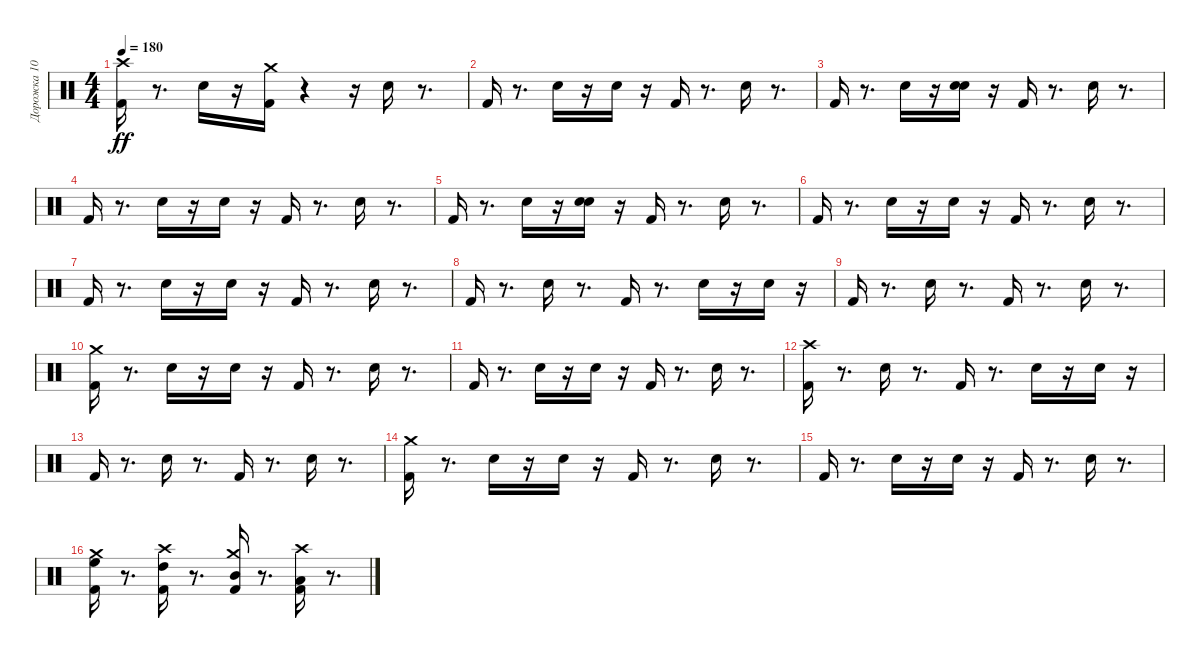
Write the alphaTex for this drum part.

\track ("Дорожка 10" "Дорожка 10") {instrument percussion}
\staff {score}
\articulation defaults
\ts (4 4)
\tempo 180
\clef neutral
\ks c
("Crash high (hit)" "Kick (hit) 2").16{dy ff} r.8{d} "Electric Snare (hit)".16 r.16 ("Crash medium (hit)" "Kick (hit) 2").16 r.4 r.16 "Electric Snare (hit)".16 r.8{d} |
"Kick (hit) 2".16 r.8{d} "Electric Snare (hit)".16 r.16 "Electric Snare (hit)".16 r.16 "Kick (hit) 2".16 r.8{d} "Electric Snare (hit)".16 r.8{d} |
"Kick (hit) 2".16 r.8{d} "Electric Snare (hit)".16 r.16 ("Electric Snare (hit)" "Hand Clap (hit)").16 r.16 "Kick (hit) 2".16 r.8{d} "Electric Snare (hit)".16 r.8{d} |
"Kick (hit) 2".16 r.8{d} "Electric Snare (hit)".16 r.16 "Electric Snare (hit)".16 r.16 "Kick (hit) 2".16 r.8{d} "Electric Snare (hit)".16 r.8{d} |
"Kick (hit) 2".16 r.8{d} "Electric Snare (hit)".16 r.16 ("Hand Clap (hit)" "Electric Snare (hit)").16 r.16 "Kick (hit) 2".16 r.8{d} "Electric Snare (hit)".16 r.8{d} |
"Kick (hit) 2".16 r.8{d} "Electric Snare (hit)".16 r.16 "Electric Snare (hit)".16 r.16 "Kick (hit) 2".16 r.8{d} "Electric Snare (hit)".16 r.8{d} |
"Kick (hit) 2".16 r.8{d} "Electric Snare (hit)".16 r.16 "Electric Snare (hit)".16 r.16 "Kick (hit) 2".16 r.8{d} "Electric Snare (hit)".16 r.8{d} |
"Kick (hit) 2".16 r.8{d} "Electric Snare (hit)".16 r.8{d} "Kick (hit) 2".16 r.8{d} "Electric Snare (hit)".16 r.16 "Electric Snare (hit)".16 r.16 |
"Kick (hit) 2".16 r.8{d} "Electric Snare (hit)".16 r.8{d} "Kick (hit) 2".16 r.8{d} "Electric Snare (hit)".16 r.8{d} |
("Crash medium (hit)" "Kick (hit) 2").16 r.8{d} "Electric Snare (hit)".16 r.16 "Electric Snare (hit)".16 r.16 "Kick (hit) 2".16 r.8{d} "Electric Snare (hit)".16 r.8{d} |
"Kick (hit) 2".16 r.8{d} "Electric Snare (hit)".16 r.16 "Electric Snare (hit)".16 r.16 "Kick (hit) 2".16 r.8{d} "Electric Snare (hit)".16 r.8{d} |
("Crash high (hit)" "Kick (hit) 2").16 r.8{d} "Electric Snare (hit)".16 r.8{d} "Kick (hit) 2".16 r.8{d} "Electric Snare (hit)".16 r.16 "Electric Snare (hit)".16 r.16 |
"Kick (hit) 2".16 r.8{d} "Electric Snare (hit)".16 r.8{d} "Kick (hit) 2".16 r.8{d} "Electric Snare (hit)".16 r.8{d} |
("Crash medium (hit)" "Kick (hit) 2").16 r.8{d} "Electric Snare (hit)".16 r.16 "Electric Snare (hit)".16 r.16 "Kick (hit) 2".16 r.8{d} "Electric Snare (hit)".16 r.8{d} |
"Kick (hit) 2".16 r.8{d} "Electric Snare (hit)".16 r.16 "Electric Snare (hit)".16 r.16 "Kick (hit) 2".16 r.8{d} "Electric Snare (hit)".16 r.8{d} |
("Crash medium (hit)" "High Floor Tom (hit)" "Kick (hit) 2").16 r.8{d} ("Crash high (hit)" "High Tom (hit)" "Kick (hit) 2").16 r.8{d} ("Crash medium (hit)" "Mid Tom (hit)" "Kick (hit) 2").16 r.8{d} ("Crash high (hit)" "Low Tom (hit)" "Kick (hit) 2").16 r.8{d}
